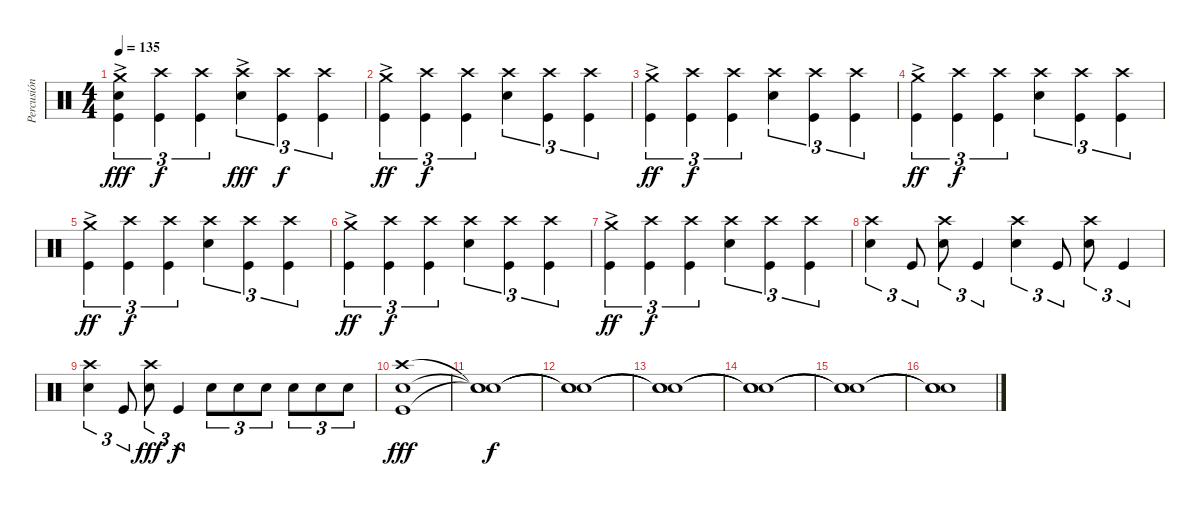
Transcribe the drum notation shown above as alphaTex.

\track ("Percusión" "Percusión") {instrument percussion}
\staff {score}
\articulation defaults
\ts (4 4)
\tempo 135
\clef neutral
\ks c
("Crash medium (hit)"{ac} "Electric Snare (hit)"{ac} "Kick (hit)").4{tu (3 2) dy fff} ("Crash high (hit)" "Kick (hit)").4{tu (3 2) dy f} ("Crash high (hit)" "Kick (hit)").4{tu (3 2)} ("Crash high (hit)" "Electric Snare (hit)"{ac}).4{tu (3 2) dy fff} ("Crash high (hit)" "Kick (hit)").4{tu (3 2) dy f} ("Crash high (hit)" "Kick (hit)").4{tu (3 2)} |
("Crash medium (hit)"{ac} "Kick (hit)").4{tu (3 2) dy ff} ("Crash high (hit)" "Kick (hit)").4{tu (3 2) dy f} ("Crash high (hit)" "Kick (hit)").4{tu (3 2)} ("Crash high (hit)" "Electric Snare (hit)").4{tu (3 2)} ("Crash high (hit)" "Kick (hit)").4{tu (3 2)} ("Crash high (hit)" "Kick (hit)").4{tu (3 2)} |
("Crash medium (hit)"{ac} "Kick (hit)").4{tu (3 2) dy ff} ("Crash high (hit)" "Kick (hit)").4{tu (3 2) dy f} ("Crash high (hit)" "Kick (hit)").4{tu (3 2)} ("Crash high (hit)" "Electric Snare (hit)").4{tu (3 2)} ("Crash high (hit)" "Kick (hit)").4{tu (3 2)} ("Crash high (hit)" "Kick (hit)").4{tu (3 2)} |
("Crash medium (hit)"{ac} "Kick (hit)").4{tu (3 2) dy ff} ("Crash high (hit)" "Kick (hit)").4{tu (3 2) dy f} ("Crash high (hit)" "Kick (hit)").4{tu (3 2)} ("Crash high (hit)" "Electric Snare (hit)").4{tu (3 2)} ("Crash high (hit)" "Kick (hit)").4{tu (3 2)} ("Crash high (hit)" "Kick (hit)").4{tu (3 2)} |
("Crash medium (hit)"{ac} "Kick (hit)").4{tu (3 2) dy ff} ("Crash high (hit)" "Kick (hit)").4{tu (3 2) dy f} ("Crash high (hit)" "Kick (hit)").4{tu (3 2)} ("Crash high (hit)" "Electric Snare (hit)").4{tu (3 2)} ("Crash high (hit)" "Kick (hit)").4{tu (3 2)} ("Crash high (hit)" "Kick (hit)").4{tu (3 2)} |
("Crash medium (hit)"{ac} "Kick (hit)").4{tu (3 2) dy ff} ("Crash high (hit)" "Kick (hit)").4{tu (3 2) dy f} ("Crash high (hit)" "Kick (hit)").4{tu (3 2)} ("Crash high (hit)" "Electric Snare (hit)").4{tu (3 2)} ("Crash high (hit)" "Kick (hit)").4{tu (3 2)} ("Crash high (hit)" "Kick (hit)").4{tu (3 2)} |
("Crash medium (hit)"{ac} "Kick (hit)").4{tu (3 2) dy ff} ("Crash high (hit)" "Kick (hit)").4{tu (3 2) dy f} ("Crash high (hit)" "Kick (hit)").4{tu (3 2)} ("Crash high (hit)" "Electric Snare (hit)").4{tu (3 2)} ("Crash high (hit)" "Kick (hit)").4{tu (3 2)} ("Crash high (hit)" "Kick (hit)").4{tu (3 2)} |
("Crash high (hit)" "Electric Snare (hit)").4{tu (3 2)} "Kick (hit)".8{tu (3 2)} ("Crash high (hit)" "Electric Snare (hit)").8{tu (3 2)} "Kick (hit)".4{tu (3 2)} ("Crash high (hit)" "Electric Snare (hit)").4{tu (3 2)} "Kick (hit)".8{tu (3 2)} ("Crash high (hit)" "Electric Snare (hit)").8{tu (3 2)} "Kick (hit)".4{tu (3 2)} |
("Crash high (hit)" "Electric Snare (hit)").4{tu (3 2)} "Kick (hit)".8{tu (3 2)} ("Crash high (hit)" "Electric Snare (hit)").8{tu (3 2) dy fff} "Kick (hit)".4{tu (3 2) dy f} "Electric Snare (hit)".8{tu (3 2)} "Electric Snare (hit)".8{tu (3 2)} "Electric Snare (hit)".8{tu (3 2)} "Electric Snare (hit)".8{tu (3 2)} "Electric Snare (hit)".8{tu (3 2)} "Electric Snare (hit)".8{tu (3 2)} |
("Crash high (hit)" "Electric Snare (hit)" "Kick (hit)").1{dy fff} |
("Snare (hit)"{t} "Snare (hit)"{t} "Snare (hit)"{t}).1{dy f} |
("Snare (hit)"{t} "Snare (hit)"{t} "Snare (hit)"{t}).1 |
("Snare (hit)"{t} "Snare (hit)"{t} "Snare (hit)"{t}).1 |
("Snare (hit)"{t} "Snare (hit)"{t} "Snare (hit)"{t}).1 |
("Snare (hit)"{t} "Snare (hit)"{t} "Snare (hit)"{t}).1 |
("Snare (hit)"{t} "Snare (hit)"{t} "Snare (hit)"{t}).1
